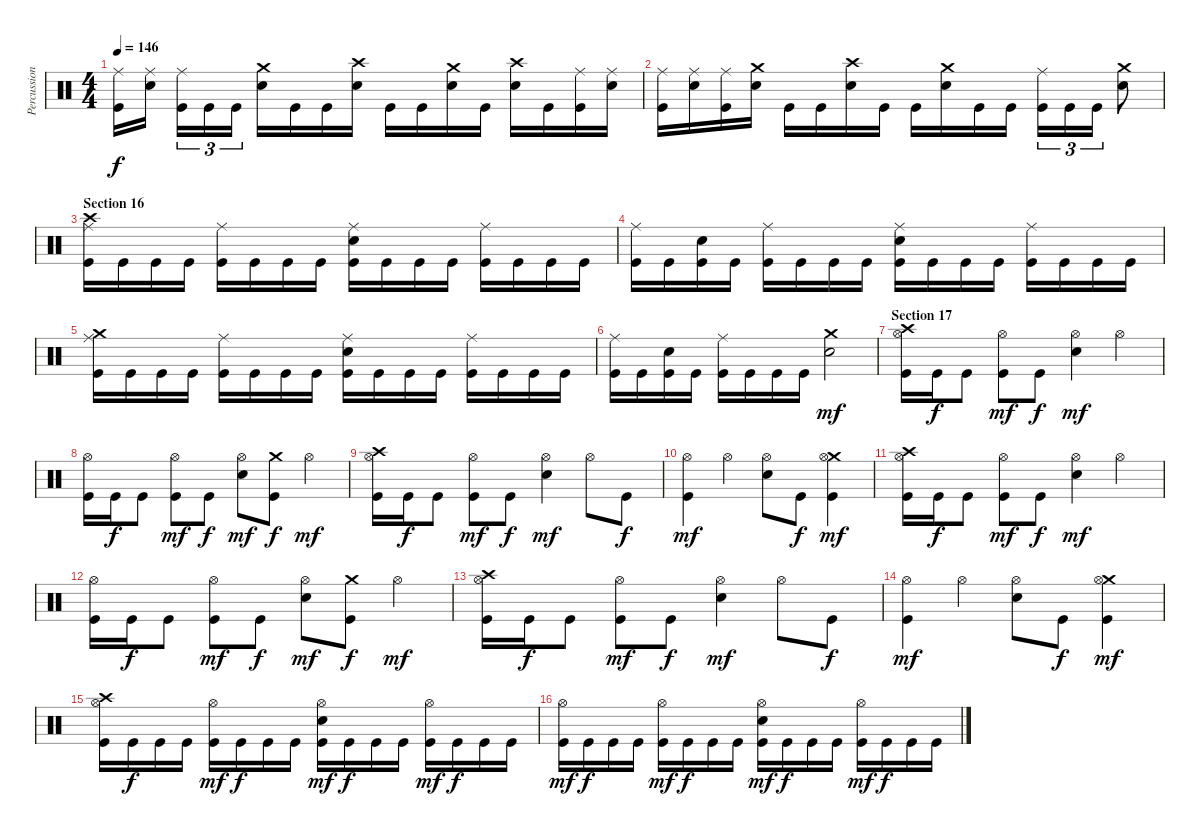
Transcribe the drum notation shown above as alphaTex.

\track ("Percussion" "Percussion") {instrument percussion}
\staff {score}
\articulation defaults
\ts (4 4)
\tempo 146
\clef neutral
\ks c
("Ride (middle)" "Kick (hit)").16{dy f} ("Ride (middle)" "Electric Snare (hit)").16{beam splitsecondary} ("Ride (middle)" "Kick (hit)").16{tu (3 2)} "Kick (hit)".16{tu (3 2)} "Kick (hit)".16{tu (3 2)} ("Crash medium (hit)" "Electric Snare (hit)").16 "Kick (hit)".16 "Kick (hit)".16 ("Crash high (hit)" "Electric Snare (hit)").16 "Kick (hit)".16 "Kick (hit)".16 ("Crash medium (hit)" "Electric Snare (hit)").16 "Kick (hit)".16 ("Crash high (hit)" "Electric Snare (hit)").16 "Kick (hit)".16 ("Ride (middle)" "Kick (hit)").16 ("Ride (middle)" "Electric Snare (hit)").16 |
("Ride (middle)" "Kick (hit)").16 ("Ride (middle)" "Electric Snare (hit)").16 ("Ride (middle)" "Kick (hit)").16 ("Crash medium (hit)" "Electric Snare (hit)").16 "Kick (hit)".16 "Kick (hit)".16 ("Crash high (hit)" "Electric Snare (hit)").16 "Kick (hit)".16 "Kick (hit)".16 ("Crash medium (hit)" "Electric Snare (hit)").16 "Kick (hit)".16 "Kick (hit)".16 ("Ride (middle)" "Kick (hit)").16{tu (3 2)} "Kick (hit)".16{tu (3 2)} "Kick (hit)".16{tu (3 2)} ("Crash medium (hit)" "Electric Snare (hit)").8 |
\section ("" "Section 16")
("Crash high (hit)" "Ride (middle)" "Kick (hit)").16 "Kick (hit)".16 "Kick (hit)".16 "Kick (hit)".16 ("Ride (middle)" "Kick (hit)").16 "Kick (hit)".16 "Kick (hit)".16 "Kick (hit)".16 ("Ride (middle)" "Electric Snare (hit)" "Kick (hit)").16 "Kick (hit)".16 "Kick (hit)".16 "Kick (hit)".16 ("Ride (middle)" "Kick (hit)").16 "Kick (hit)".16 "Kick (hit)".16 "Kick (hit)".16 |
("Ride (middle)" "Kick (hit)").16 "Kick (hit)".16 ("Electric Snare (hit)" "Kick (hit)").16 "Kick (hit)".16 ("Ride (middle)" "Kick (hit)").16 "Kick (hit)".16 "Kick (hit)".16 "Kick (hit)".16 ("Ride (middle)" "Electric Snare (hit)" "Kick (hit)").16 "Kick (hit)".16 "Kick (hit)".16 "Kick (hit)".16 ("Ride (middle)" "Kick (hit)").16 "Kick (hit)".16 "Kick (hit)".16 "Kick (hit)".16 |
("Crash medium (hit)" "Ride (middle)" "Kick (hit)").16 "Kick (hit)".16 "Kick (hit)".16 "Kick (hit)".16 ("Ride (middle)" "Kick (hit)").16 "Kick (hit)".16 "Kick (hit)".16 "Kick (hit)".16 ("Ride (middle)" "Electric Snare (hit)" "Kick (hit)").16 "Kick (hit)".16 "Kick (hit)".16 "Kick (hit)".16 ("Ride (middle)" "Kick (hit)").16 "Kick (hit)".16 "Kick (hit)".16 "Kick (hit)".16 |
("Ride (middle)" "Kick (hit)").16 "Kick (hit)".16 ("Electric Snare (hit)" "Kick (hit)").16 "Kick (hit)".16 ("Ride (middle)" "Kick (hit)").16 "Kick (hit)".16 "Kick (hit)".16 "Kick (hit)".16 ("Crash medium (hit)" "Electric Snare (hit)").2{dy mf} |
\section ("" "Section 17")
("Crash high (hit)" "Hi-Hat (open)" "Kick (hit)").16 "Kick (hit)".16{dy f} "Kick (hit)".8 ("Hi-Hat (open)" "Kick (hit)").8{dy mf} "Kick (hit)".8{dy f} ("Hi-Hat (open)" "Electric Snare (hit)").4{dy mf} "Hi-Hat (open)".4 |
("Hi-Hat (open)" "Kick (hit)").16 "Kick (hit)".16{dy f} "Kick (hit)".8 ("Hi-Hat (open)" "Kick (hit)").8{dy mf} "Kick (hit)".8{dy f} ("Hi-Hat (open)" "Electric Snare (hit)").8{dy mf} ("Crash medium (hit)" "Kick (hit)").8{dy f} "Hi-Hat (open)".4{dy mf} |
("Crash high (hit)" "Hi-Hat (open)" "Kick (hit)").16 "Kick (hit)".16{dy f} "Kick (hit)".8 ("Hi-Hat (open)" "Kick (hit)").8{dy mf} "Kick (hit)".8{dy f} ("Hi-Hat (open)" "Electric Snare (hit)").4{dy mf} "Hi-Hat (open)".8 "Kick (hit)".8{dy f} |
("Hi-Hat (open)" "Kick (hit)").4{dy mf} "Hi-Hat (open)".4 ("Hi-Hat (open)" "Electric Snare (hit)").8 "Kick (hit)".8{dy f} ("Crash medium (hit)" "Hi-Hat (open)" "Kick (hit)").4{dy mf} |
("Crash high (hit)" "Hi-Hat (open)" "Kick (hit)").16 "Kick (hit)".16{dy f} "Kick (hit)".8 ("Hi-Hat (open)" "Kick (hit)").8{dy mf} "Kick (hit)".8{dy f} ("Hi-Hat (open)" "Electric Snare (hit)").4{dy mf} "Hi-Hat (open)".4 |
("Hi-Hat (open)" "Kick (hit)").16 "Kick (hit)".16{dy f} "Kick (hit)".8 ("Hi-Hat (open)" "Kick (hit)").8{dy mf} "Kick (hit)".8{dy f} ("Hi-Hat (open)" "Electric Snare (hit)").8{dy mf} ("Crash medium (hit)" "Kick (hit)").8{dy f} "Hi-Hat (open)".4{dy mf} |
("Crash high (hit)" "Hi-Hat (open)" "Kick (hit)").16 "Kick (hit)".16{dy f} "Kick (hit)".8 ("Hi-Hat (open)" "Kick (hit)").8{dy mf} "Kick (hit)".8{dy f} ("Hi-Hat (open)" "Electric Snare (hit)").4{dy mf} "Hi-Hat (open)".8 "Kick (hit)".8{dy f} |
("Hi-Hat (open)" "Kick (hit)").4{dy mf} "Hi-Hat (open)".4 ("Hi-Hat (open)" "Electric Snare (hit)").8 "Kick (hit)".8{dy f} ("Crash medium (hit)" "Hi-Hat (open)" "Kick (hit)").4{dy mf} |
("Crash high (hit)" "Hi-Hat (open)" "Kick (hit)").16 "Kick (hit)".16{dy f} "Kick (hit)".16 "Kick (hit)".16 ("Hi-Hat (open)" "Kick (hit)").16{dy mf} "Kick (hit)".16{dy f} "Kick (hit)".16 "Kick (hit)".16 ("Hi-Hat (open)" "Electric Snare (hit)" "Kick (hit)").16{dy mf} "Kick (hit)".16{dy f} "Kick (hit)".16 "Kick (hit)".16 ("Hi-Hat (open)" "Kick (hit)").16{dy mf} "Kick (hit)".16{dy f} "Kick (hit)".16 "Kick (hit)".16 |
("Hi-Hat (open)" "Kick (hit)").16{dy mf} "Kick (hit)".16{dy f} "Kick (hit)".16 "Kick (hit)".16 ("Hi-Hat (open)" "Kick (hit)").16{dy mf} "Kick (hit)".16{dy f} "Kick (hit)".16 "Kick (hit)".16 ("Hi-Hat (open)" "Electric Snare (hit)" "Kick (hit)").16{dy mf} "Kick (hit)".16{dy f} "Kick (hit)".16 "Kick (hit)".16 ("Hi-Hat (open)" "Kick (hit)").16{dy mf} "Kick (hit)".16{dy f} "Kick (hit)".16 "Kick (hit)".16
